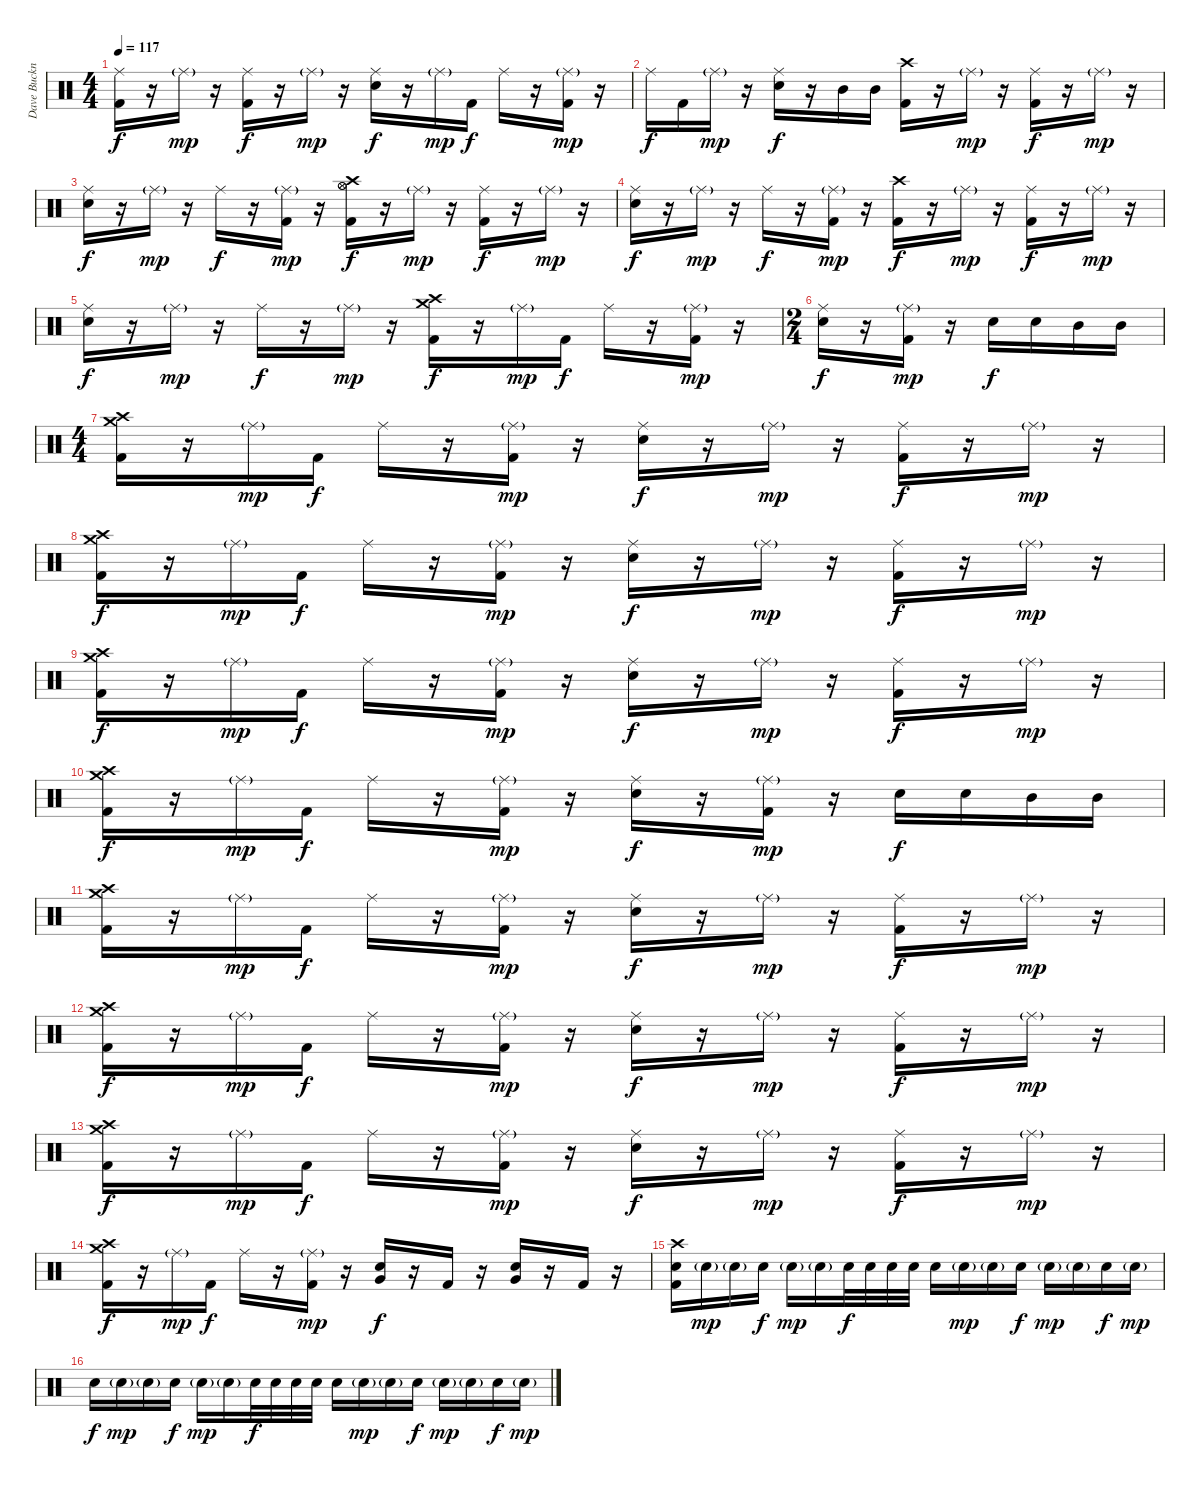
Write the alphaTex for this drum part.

\track ("Dave Buckner RULZ!!! (Drums)" "Dave Buckn") {instrument percussion}
\staff {score}
\articulation defaults
\ts (4 4)
\tempo 117
\clef neutral
\ks c
("Ride (middle)" "Kick (hit) 2").16{dy f} r.16 "Ride (middle)"{g}.16{dy mp} r.16 ("Ride (middle)" "Kick (hit) 2").16{dy f} r.16 "Ride (middle)"{g}.16{dy mp} r.16 ("Ride (middle)" "Electric Snare (hit)").16{dy f} r.16 "Ride (middle)"{g}.16{dy mp} "Kick (hit) 2".16{dy f} "Ride (middle)".16 r.16 ("Ride (middle)"{g} "Kick (hit) 2").16{dy mp} r.16 |
"Ride (middle)".16{dy f} "Kick (hit) 2".16 "Ride (middle)"{g}.16{dy mp} r.16 ("Ride (middle)" "Electric Snare (hit)").16{dy f} r.16 "Mid Tom (hit)".16 "Mid Tom (hit)".16 ("Crash high (hit)" "Kick (hit) 2").16 r.16 "Ride (middle)"{g}.16{dy mp} r.16 ("Ride (middle)" "Kick (hit) 2").16{dy f} r.16 "Ride (middle)"{g}.16{dy mp} r.16 |
("Ride (middle)" "Electric Snare (hit)").16{dy f} r.16 "Ride (middle)"{g}.16{dy mp} r.16 "Ride (middle)".16{dy f} r.16 ("Ride (middle)"{g} "Kick (hit) 2").16{dy mp} r.16 ("Crash high (hit)" "Hi-Hat (open)" "Hi-Hat (open)" "Kick (hit) 2").16{dy f} r.16 "Ride (middle)"{g}.16{dy mp} r.16 ("Ride (middle)" "Kick (hit) 2").16{dy f} r.16 "Ride (middle)"{g}.16{dy mp} r.16 |
("Ride (middle)" "Electric Snare (hit)").16{dy f} r.16 "Ride (middle)"{g}.16{dy mp} r.16 "Ride (middle)".16{dy f} r.16 ("Ride (middle)"{g} "Kick (hit) 2").16{dy mp} r.16 ("Crash high (hit)" "Kick (hit) 2").16{dy f} r.16 "Ride (middle)"{g}.16{dy mp} r.16 ("Ride (middle)" "Kick (hit) 2").16{dy f} r.16 "Ride (middle)"{g}.16{dy mp} r.16 |
("Ride (middle)" "Electric Snare (hit)").16{dy f} r.16 "Ride (middle)"{g}.16{dy mp} r.16 "Ride (middle)".16{dy f} r.16 "Ride (middle)"{g}.16{dy mp} r.16 ("Crash high (hit)" "Crash medium (hit)" "Kick (hit) 2").16{dy f} r.16 "Ride (middle)"{g}.16{dy mp} "Kick (hit) 2".16{dy f} "Ride (middle)".16 r.16 ("Ride (middle)"{g} "Kick (hit) 2").16{dy mp} r.16 |
\ts (2 4)
("Ride (middle)" "Electric Snare (hit)").16{dy f} r.16 ("Ride (middle)"{g} "Kick (hit) 2").16{dy mp} r.16 "Electric Snare (hit)".16{dy f} "Electric Snare (hit)".16 "Mid Tom (hit)".16 "Mid Tom (hit)".16 |
\ts (4 4)
("Crash high (hit)" "Crash medium (hit)" "Kick (hit) 2").16 r.16 "Ride (middle)"{g}.16{dy mp} "Kick (hit) 2".16{dy f} "Ride (middle)".16 r.16 ("Ride (middle)"{g} "Kick (hit) 2").16{dy mp} r.16 ("Ride (middle)" "Electric Snare (hit)").16{dy f} r.16 "Ride (middle)"{g}.16{dy mp} r.16 ("Ride (middle)" "Kick (hit) 2").16{dy f} r.16 "Ride (middle)"{g}.16{dy mp} r.16 |
("Crash high (hit)" "Crash medium (hit)" "Kick (hit) 2").16{dy f} r.16 "Ride (middle)"{g}.16{dy mp} "Kick (hit) 2".16{dy f} "Ride (middle)".16 r.16 ("Ride (middle)"{g} "Kick (hit) 2").16{dy mp} r.16 ("Ride (middle)" "Electric Snare (hit)").16{dy f} r.16 "Ride (middle)"{g}.16{dy mp} r.16 ("Ride (middle)" "Kick (hit) 2").16{dy f} r.16 "Ride (middle)"{g}.16{dy mp} r.16 |
("Crash high (hit)" "Crash medium (hit)" "Kick (hit) 2").16{dy f} r.16 "Ride (middle)"{g}.16{dy mp} "Kick (hit) 2".16{dy f} "Ride (middle)".16 r.16 ("Ride (middle)"{g} "Kick (hit) 2").16{dy mp} r.16 ("Ride (middle)" "Electric Snare (hit)").16{dy f} r.16 "Ride (middle)"{g}.16{dy mp} r.16 ("Ride (middle)" "Kick (hit) 2").16{dy f} r.16 "Ride (middle)"{g}.16{dy mp} r.16 |
("Crash high (hit)" "Crash medium (hit)" "Kick (hit) 2").16{dy f} r.16 "Ride (middle)"{g}.16{dy mp} "Kick (hit) 2".16{dy f} "Ride (middle)".16 r.16 ("Ride (middle)"{g} "Kick (hit) 2").16{dy mp} r.16 ("Ride (middle)" "Electric Snare (hit)").16{dy f} r.16 ("Ride (middle)"{g} "Kick (hit) 2").16{dy mp} r.16 "Electric Snare (hit)".16{dy f} "Electric Snare (hit)".16 "Mid Tom (hit)".16 "Mid Tom (hit)".16 |
("Crash high (hit)" "Crash medium (hit)" "Kick (hit) 2").16 r.16 "Ride (middle)"{g}.16{dy mp} "Kick (hit) 2".16{dy f} "Ride (middle)".16 r.16 ("Ride (middle)"{g} "Kick (hit) 2").16{dy mp} r.16 ("Ride (middle)" "Electric Snare (hit)").16{dy f} r.16 "Ride (middle)"{g}.16{dy mp} r.16 ("Ride (middle)" "Kick (hit) 2").16{dy f} r.16 "Ride (middle)"{g}.16{dy mp} r.16 |
("Crash high (hit)" "Crash medium (hit)" "Kick (hit) 2").16{dy f} r.16 "Ride (middle)"{g}.16{dy mp} "Kick (hit) 2".16{dy f} "Ride (middle)".16 r.16 ("Ride (middle)"{g} "Kick (hit) 2").16{dy mp} r.16 ("Ride (middle)" "Electric Snare (hit)").16{dy f} r.16 "Ride (middle)"{g}.16{dy mp} r.16 ("Ride (middle)" "Kick (hit) 2").16{dy f} r.16 "Ride (middle)"{g}.16{dy mp} r.16 |
("Crash high (hit)" "Crash medium (hit)" "Kick (hit) 2").16{dy f} r.16 "Ride (middle)"{g}.16{dy mp} "Kick (hit) 2".16{dy f} "Ride (middle)".16 r.16 ("Ride (middle)"{g} "Kick (hit) 2").16{dy mp} r.16 ("Ride (middle)" "Electric Snare (hit)").16{dy f} r.16 "Ride (middle)"{g}.16{dy mp} r.16 ("Ride (middle)" "Kick (hit) 2").16{dy f} r.16 "Ride (middle)"{g}.16{dy mp} r.16 |
("Crash high (hit)" "Crash medium (hit)" "Kick (hit) 2").16{dy f} r.16 "Ride (middle)"{g}.16{dy mp} "Kick (hit) 2".16{dy f} "Ride (middle)".16 r.16 ("Ride (middle)"{g} "Kick (hit) 2").16{dy mp} r.16 ("Electric Snare (hit)" "Very Low Tom (hit)").16{dy f} r.16 "Kick (hit) 2".16 r.16 ("Electric Snare (hit)" "Very Low Tom (hit)").16 r.16 "Kick (hit) 2".16 r.16 |
("Crash high (hit)" "Electric Snare (hit)" "Kick (hit) 2").16{volume 6} "Electric Snare (hit)"{g}.16{dy mp} "Electric Snare (hit)"{g}.16 "Electric Snare (hit)".16{dy f} "Electric Snare (hit)"{g}.16{dy mp} "Electric Snare (hit)"{g}.16 "Electric Snare (hit)".32{dy f} "Electric Snare (hit)".32 "Electric Snare (hit)".32 "Electric Snare (hit)".32 "Electric Snare (hit)".16 "Electric Snare (hit)"{g}.16{dy mp} "Electric Snare (hit)"{g}.16 "Electric Snare (hit)".16{dy f} "Electric Snare (hit)"{g}.16{dy mp} "Electric Snare (hit)"{g}.16 "Electric Snare (hit)".16{dy f} "Electric Snare (hit)"{g}.16{dy mp} |
"Electric Snare (hit)".16{dy f} "Electric Snare (hit)"{g}.16{dy mp} "Electric Snare (hit)"{g}.16 "Electric Snare (hit)".16{dy f} "Electric Snare (hit)"{g}.16{dy mp} "Electric Snare (hit)"{g}.16 "Electric Snare (hit)".32{dy f} "Electric Snare (hit)".32 "Electric Snare (hit)".32 "Electric Snare (hit)".32 "Electric Snare (hit)".16 "Electric Snare (hit)"{g}.16{dy mp} "Electric Snare (hit)"{g}.16 "Electric Snare (hit)".16{dy f} "Electric Snare (hit)"{g}.16{dy mp} "Electric Snare (hit)"{g}.16 "Electric Snare (hit)".16{dy f} "Electric Snare (hit)"{g}.16{dy mp}
